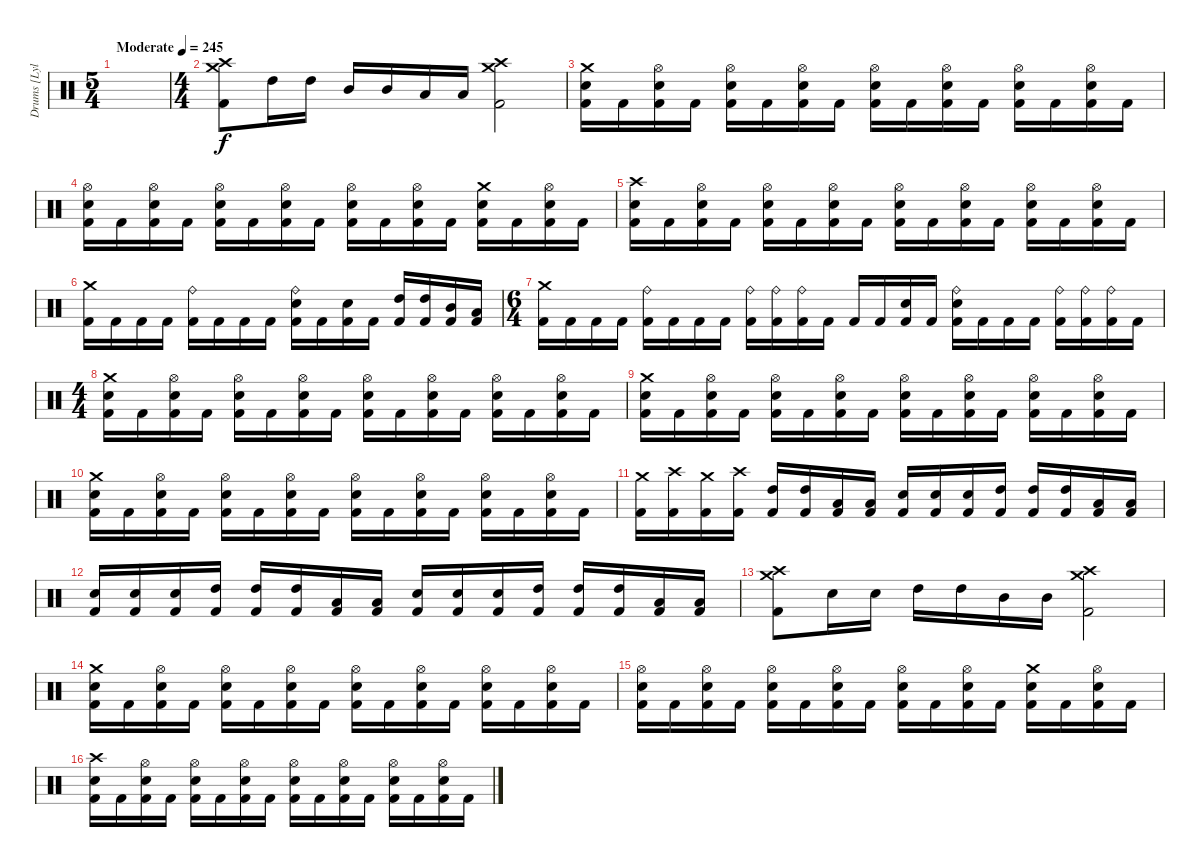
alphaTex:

\track ("Drums [Lyle Cooper]" "Drums [Lyl") {instrument percussion}
\staff {score}
\articulation defaults
\ts (5 4)
\tempo (245 "Moderate")
\clef neutral
\ks c
|
\ts (4 4)
("Crash medium (hit)" "Crash high (hit)" "Kick (hit) 2").8 "High Tom (hit)".16 "High Tom (hit)".16 "Mid Tom (hit)".16 "Mid Tom (hit)".16 "Low Tom (hit)".16 "Low Tom (hit)".16 ("Crash medium (hit)" "Crash high (hit)" "Kick (hit) 2").2 |
("Crash medium (hit)" "Electric Snare (hit)" "Kick (hit) 2").16 "Kick (hit) 2".16 ("Hi-Hat (open)" "Electric Snare (hit)" "Kick (hit) 2").16 "Kick (hit) 2".16 ("Hi-Hat (open)" "Electric Snare (hit)" "Kick (hit) 2").16 "Kick (hit) 2".16 ("Hi-Hat (open)" "Electric Snare (hit)" "Kick (hit) 2").16 "Kick (hit) 2".16 ("Hi-Hat (open)" "Electric Snare (hit)" "Kick (hit) 2").16 "Kick (hit) 2".16 ("Hi-Hat (open)" "Electric Snare (hit)" "Kick (hit) 2").16 "Kick (hit) 2".16 ("Hi-Hat (open)" "Electric Snare (hit)" "Kick (hit) 2").16 "Kick (hit) 2".16 ("Hi-Hat (open)" "Electric Snare (hit)" "Kick (hit) 2").16 "Kick (hit) 2".16 |
("Hi-Hat (open)" "Electric Snare (hit)" "Kick (hit) 2").16 "Kick (hit) 2".16 ("Hi-Hat (open)" "Electric Snare (hit)" "Kick (hit) 2").16 "Kick (hit) 2".16 ("Hi-Hat (open)" "Electric Snare (hit)" "Kick (hit) 2").16 "Kick (hit) 2".16 ("Hi-Hat (open)" "Electric Snare (hit)" "Kick (hit) 2").16 "Kick (hit) 2".16 ("Hi-Hat (open)" "Electric Snare (hit)" "Kick (hit) 2").16 "Kick (hit) 2".16 ("Hi-Hat (open)" "Electric Snare (hit)" "Kick (hit) 2").16 "Kick (hit) 2".16 ("Crash medium (hit)" "Electric Snare (hit)" "Kick (hit) 2").16 "Kick (hit) 2".16 ("Hi-Hat (open)" "Electric Snare (hit)" "Kick (hit) 2").16 "Kick (hit) 2".16 |
("Crash high (hit)" "Electric Snare (hit)" "Kick (hit) 2").16 "Kick (hit) 2".16 ("Hi-Hat (open)" "Electric Snare (hit)" "Kick (hit) 2").16 "Kick (hit) 2".16 ("Hi-Hat (open)" "Electric Snare (hit)" "Kick (hit) 2").16 "Kick (hit) 2".16 ("Hi-Hat (open)" "Electric Snare (hit)" "Kick (hit) 2").16 "Kick (hit) 2".16 ("Hi-Hat (open)" "Electric Snare (hit)" "Kick (hit) 2").16 "Kick (hit) 2".16 ("Hi-Hat (open)" "Electric Snare (hit)" "Kick (hit) 2").16 "Kick (hit) 2".16 ("Hi-Hat (open)" "Electric Snare (hit)" "Kick (hit) 2").16 "Kick (hit) 2".16 ("Hi-Hat (open)" "Electric Snare (hit)" "Kick (hit) 2").16 "Kick (hit) 2".16 |
("Crash medium (hit)" "Kick (hit) 2").16 "Kick (hit) 2".16 "Kick (hit) 2".16 "Kick (hit) 2".16 ("Ride (bell)" "Kick (hit) 2").16 "Kick (hit) 2".16 "Kick (hit) 2".16 "Kick (hit) 2".16 ("Ride (bell)" "Electric Snare (hit)" "Kick (hit) 2").16 "Kick (hit) 2".16 ("Electric Snare (hit)" "Kick (hit) 2").16 "Kick (hit) 2".16 ("High Tom (hit)" "Kick (hit) 2").16 ("High Tom (hit)" "Kick (hit) 2").16 ("Mid Tom (hit)" "Kick (hit) 2").16 ("Low Tom (hit)" "Kick (hit) 2").16 |
\ts (6 4)
("Crash medium (hit)" "Kick (hit) 2").16 "Kick (hit) 2".16 "Kick (hit) 2".16 "Kick (hit) 2".16 ("Ride (bell)" "Kick (hit) 2").16 "Kick (hit) 2".16 "Kick (hit) 2".16 "Kick (hit) 2".16 ("Ride (bell)" "Kick (hit) 2").16 ("Ride (bell)" "Kick (hit) 2").16 ("Ride (bell)" "Kick (hit) 2").16 "Kick (hit) 2".16 "Kick (hit) 2".16 "Kick (hit) 2".16 ("Electric Snare (hit)" "Kick (hit) 2").16 "Kick (hit) 2".16 ("Ride (bell)" "Electric Snare (hit)" "Kick (hit) 2").16 "Kick (hit) 2".16 "Kick (hit) 2".16 "Kick (hit) 2".16 ("Ride (bell)" "Kick (hit) 2").16 ("Ride (bell)" "Kick (hit) 2").16 ("Ride (bell)" "Kick (hit) 2").16 "Kick (hit) 2".16 |
\ts (4 4)
("Crash medium (hit)" "Electric Snare (hit)" "Kick (hit) 2").16 "Kick (hit) 2".16 ("Hi-Hat (open)" "Electric Snare (hit)" "Kick (hit) 2").16 "Kick (hit) 2".16 ("Hi-Hat (open)" "Electric Snare (hit)" "Kick (hit) 2").16 "Kick (hit) 2".16 ("Hi-Hat (open)" "Electric Snare (hit)" "Kick (hit) 2").16 "Kick (hit) 2".16 ("Hi-Hat (open)" "Electric Snare (hit)" "Kick (hit) 2").16 "Kick (hit) 2".16 ("Hi-Hat (open)" "Electric Snare (hit)" "Kick (hit) 2").16 "Kick (hit) 2".16 ("Hi-Hat (open)" "Electric Snare (hit)" "Kick (hit) 2").16 "Kick (hit) 2".16 ("Hi-Hat (open)" "Electric Snare (hit)" "Kick (hit) 2").16 "Kick (hit) 2".16 |
("Crash medium (hit)" "Electric Snare (hit)" "Kick (hit) 2").16 "Kick (hit) 2".16 ("Hi-Hat (open)" "Electric Snare (hit)" "Kick (hit) 2").16 "Kick (hit) 2".16 ("Hi-Hat (open)" "Electric Snare (hit)" "Kick (hit) 2").16 "Kick (hit) 2".16 ("Hi-Hat (open)" "Electric Snare (hit)" "Kick (hit) 2").16 "Kick (hit) 2".16 ("Hi-Hat (open)" "Electric Snare (hit)" "Kick (hit) 2").16 "Kick (hit) 2".16 ("Hi-Hat (open)" "Electric Snare (hit)" "Kick (hit) 2").16 "Kick (hit) 2".16 ("Hi-Hat (open)" "Electric Snare (hit)" "Kick (hit) 2").16 "Kick (hit) 2".16 ("Hi-Hat (open)" "Electric Snare (hit)" "Kick (hit) 2").16 "Kick (hit) 2".16 |
("Crash medium (hit)" "Electric Snare (hit)" "Kick (hit) 2").16 "Kick (hit) 2".16 ("Hi-Hat (open)" "Electric Snare (hit)" "Kick (hit) 2").16 "Kick (hit) 2".16 ("Hi-Hat (open)" "Electric Snare (hit)" "Kick (hit) 2").16 "Kick (hit) 2".16 ("Hi-Hat (open)" "Electric Snare (hit)" "Kick (hit) 2").16 "Kick (hit) 2".16 ("Hi-Hat (open)" "Electric Snare (hit)" "Kick (hit) 2").16 "Kick (hit) 2".16 ("Hi-Hat (open)" "Electric Snare (hit)" "Kick (hit) 2").16 "Kick (hit) 2".16 ("Hi-Hat (open)" "Electric Snare (hit)" "Kick (hit) 2").16 "Kick (hit) 2".16 ("Hi-Hat (open)" "Electric Snare (hit)" "Kick (hit) 2").16 "Kick (hit) 2".16 |
("Crash medium (hit)" "Kick (hit) 2").16 ("Crash high (hit)" "Kick (hit) 2").16 ("Crash medium (hit)" "Kick (hit) 2").16 ("Crash high (hit)" "Kick (hit) 2").16 ("High Tom (hit)" "Kick (hit) 2").16 ("High Tom (hit)" "Kick (hit) 2").16 ("Low Tom (hit)" "Kick (hit) 2").16 ("Low Tom (hit)" "Kick (hit) 2").16 ("Electric Snare (hit)" "Kick (hit) 2").16 ("Electric Snare (hit)" "Kick (hit) 2").16 ("Electric Snare (hit)" "Kick (hit) 2").16 ("High Tom (hit)" "Kick (hit) 2").16 ("High Tom (hit)" "Kick (hit) 2").16 ("High Tom (hit)" "Kick (hit) 2").16 ("Low Tom (hit)" "Kick (hit) 2").16 ("Low Tom (hit)" "Kick (hit) 2").16 |
("Electric Snare (hit)" "Kick (hit) 2").16 ("Electric Snare (hit)" "Kick (hit) 2").16 ("Electric Snare (hit)" "Kick (hit) 2").16 ("High Tom (hit)" "Kick (hit) 2").16 ("High Tom (hit)" "Kick (hit) 2").16 ("High Tom (hit)" "Kick (hit) 2").16 ("Low Tom (hit)" "Kick (hit) 2").16 ("Low Tom (hit)" "Kick (hit) 2").16 ("Electric Snare (hit)" "Kick (hit) 2").16 ("Electric Snare (hit)" "Kick (hit) 2").16 ("Electric Snare (hit)" "Kick (hit) 2").16 ("High Tom (hit)" "Kick (hit) 2").16 ("High Tom (hit)" "Kick (hit) 2").16 ("High Tom (hit)" "Kick (hit) 2").16 ("Low Tom (hit)" "Kick (hit) 2").16 ("Low Tom (hit)" "Kick (hit) 2").16 |
("Crash medium (hit)" "Crash high (hit)" "Kick (hit) 2").8 "Electric Snare (hit)".16 "Electric Snare (hit)".16 "High Tom (hit)".16 "High Tom (hit)".16 "Mid Tom (hit)".16 "Mid Tom (hit)".16 ("Crash medium (hit)" "Crash high (hit)" "Kick (hit) 2").2 |
("Crash medium (hit)" "Electric Snare (hit)" "Kick (hit) 2").16 "Kick (hit) 2".16 ("Hi-Hat (open)" "Electric Snare (hit)" "Kick (hit) 2").16 "Kick (hit) 2".16 ("Hi-Hat (open)" "Electric Snare (hit)" "Kick (hit) 2").16 "Kick (hit) 2".16 ("Hi-Hat (open)" "Electric Snare (hit)" "Kick (hit) 2").16 "Kick (hit) 2".16 ("Hi-Hat (open)" "Electric Snare (hit)" "Kick (hit) 2").16 "Kick (hit) 2".16 ("Hi-Hat (open)" "Electric Snare (hit)" "Kick (hit) 2").16 "Kick (hit) 2".16 ("Hi-Hat (open)" "Electric Snare (hit)" "Kick (hit) 2").16 "Kick (hit) 2".16 ("Hi-Hat (open)" "Electric Snare (hit)" "Kick (hit) 2").16 "Kick (hit) 2".16 |
("Hi-Hat (open)" "Electric Snare (hit)" "Kick (hit) 2").16 "Kick (hit) 2".16 ("Hi-Hat (open)" "Electric Snare (hit)" "Kick (hit) 2").16 "Kick (hit) 2".16 ("Hi-Hat (open)" "Electric Snare (hit)" "Kick (hit) 2").16 "Kick (hit) 2".16 ("Hi-Hat (open)" "Electric Snare (hit)" "Kick (hit) 2").16 "Kick (hit) 2".16 ("Hi-Hat (open)" "Electric Snare (hit)" "Kick (hit) 2").16 "Kick (hit) 2".16 ("Hi-Hat (open)" "Electric Snare (hit)" "Kick (hit) 2").16 "Kick (hit) 2".16 ("Crash medium (hit)" "Electric Snare (hit)" "Kick (hit) 2").16 "Kick (hit) 2".16 ("Hi-Hat (open)" "Electric Snare (hit)" "Kick (hit) 2").16 "Kick (hit) 2".16 |
("Crash high (hit)" "Electric Snare (hit)" "Kick (hit) 2").16 "Kick (hit) 2".16 ("Hi-Hat (open)" "Electric Snare (hit)" "Kick (hit) 2").16 "Kick (hit) 2".16 ("Hi-Hat (open)" "Electric Snare (hit)" "Kick (hit) 2").16 "Kick (hit) 2".16 ("Hi-Hat (open)" "Electric Snare (hit)" "Kick (hit) 2").16 "Kick (hit) 2".16 ("Hi-Hat (open)" "Electric Snare (hit)" "Kick (hit) 2").16 "Kick (hit) 2".16 ("Hi-Hat (open)" "Electric Snare (hit)" "Kick (hit) 2").16 "Kick (hit) 2".16 ("Hi-Hat (open)" "Electric Snare (hit)" "Kick (hit) 2").16 "Kick (hit) 2".16 ("Hi-Hat (open)" "Electric Snare (hit)" "Kick (hit) 2").16 "Kick (hit) 2".16
